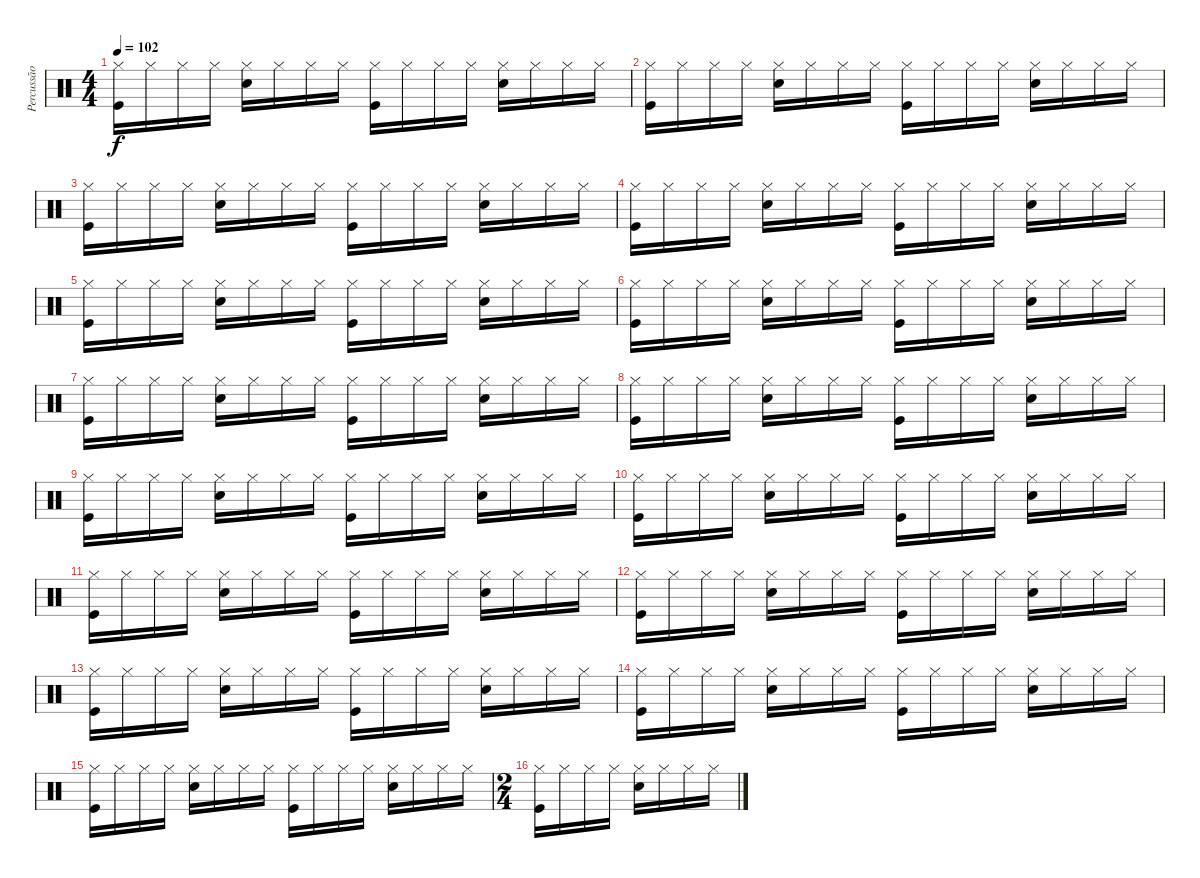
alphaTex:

\track ("Percussão" "Percussão") {instrument percussion}
\staff {score}
\articulation defaults
\ts (4 4)
\tempo 102
\clef neutral
\ks c
("Hi-Hat (closed)" "Kick (hit)").16{dy f} "Hi-Hat (closed)".16 "Hi-Hat (closed)".16 "Hi-Hat (closed)".16 ("Hi-Hat (closed)" "Snare (hit) 2").16 "Hi-Hat (closed)".16 "Hi-Hat (closed)".16 "Hi-Hat (closed)".16 ("Hi-Hat (closed)" "Kick (hit)").16 "Hi-Hat (closed)".16 "Hi-Hat (closed)".16 "Hi-Hat (closed)".16 ("Hi-Hat (closed)" "Snare (hit) 2").16 "Hi-Hat (closed)".16 "Hi-Hat (closed)".16 "Hi-Hat (closed)".16 |
("Hi-Hat (closed)" "Kick (hit)").16 "Hi-Hat (closed)".16 "Hi-Hat (closed)".16 "Hi-Hat (closed)".16 ("Hi-Hat (closed)" "Snare (hit) 2").16 "Hi-Hat (closed)".16 "Hi-Hat (closed)".16 "Hi-Hat (closed)".16 ("Hi-Hat (closed)" "Kick (hit)").16 "Hi-Hat (closed)".16 "Hi-Hat (closed)".16 "Hi-Hat (closed)".16 ("Hi-Hat (closed)" "Snare (hit) 2").16 "Hi-Hat (closed)".16 "Hi-Hat (closed)".16 "Hi-Hat (closed)".16 |
("Hi-Hat (closed)" "Kick (hit)").16 "Hi-Hat (closed)".16 "Hi-Hat (closed)".16 "Hi-Hat (closed)".16 ("Hi-Hat (closed)" "Snare (hit) 2").16 "Hi-Hat (closed)".16 "Hi-Hat (closed)".16 "Hi-Hat (closed)".16 ("Hi-Hat (closed)" "Kick (hit)").16 "Hi-Hat (closed)".16 "Hi-Hat (closed)".16 "Hi-Hat (closed)".16 ("Hi-Hat (closed)" "Snare (hit) 2").16 "Hi-Hat (closed)".16 "Hi-Hat (closed)".16 "Hi-Hat (closed)".16 |
("Hi-Hat (closed)" "Kick (hit)").16 "Hi-Hat (closed)".16 "Hi-Hat (closed)".16 "Hi-Hat (closed)".16 ("Hi-Hat (closed)" "Snare (hit) 2").16 "Hi-Hat (closed)".16 "Hi-Hat (closed)".16 "Hi-Hat (closed)".16 ("Hi-Hat (closed)" "Kick (hit)").16 "Hi-Hat (closed)".16 "Hi-Hat (closed)".16 "Hi-Hat (closed)".16 ("Hi-Hat (closed)" "Snare (hit) 2").16 "Hi-Hat (closed)".16 "Hi-Hat (closed)".16 "Hi-Hat (closed)".16 |
("Hi-Hat (closed)" "Kick (hit)").16 "Hi-Hat (closed)".16 "Hi-Hat (closed)".16 "Hi-Hat (closed)".16 ("Hi-Hat (closed)" "Snare (hit) 2").16 "Hi-Hat (closed)".16 "Hi-Hat (closed)".16 "Hi-Hat (closed)".16 ("Hi-Hat (closed)" "Kick (hit)").16 "Hi-Hat (closed)".16 "Hi-Hat (closed)".16 "Hi-Hat (closed)".16 ("Hi-Hat (closed)" "Snare (hit) 2").16 "Hi-Hat (closed)".16 "Hi-Hat (closed)".16 "Hi-Hat (closed)".16 |
("Hi-Hat (closed)" "Kick (hit)").16 "Hi-Hat (closed)".16 "Hi-Hat (closed)".16 "Hi-Hat (closed)".16 ("Hi-Hat (closed)" "Snare (hit) 2").16 "Hi-Hat (closed)".16 "Hi-Hat (closed)".16 "Hi-Hat (closed)".16 ("Hi-Hat (closed)" "Kick (hit)").16 "Hi-Hat (closed)".16 "Hi-Hat (closed)".16 "Hi-Hat (closed)".16 ("Hi-Hat (closed)" "Snare (hit) 2").16 "Hi-Hat (closed)".16 "Hi-Hat (closed)".16 "Hi-Hat (closed)".16 |
("Hi-Hat (closed)" "Kick (hit)").16 "Hi-Hat (closed)".16 "Hi-Hat (closed)".16 "Hi-Hat (closed)".16 ("Hi-Hat (closed)" "Snare (hit) 2").16 "Hi-Hat (closed)".16 "Hi-Hat (closed)".16 "Hi-Hat (closed)".16 ("Hi-Hat (closed)" "Kick (hit)").16 "Hi-Hat (closed)".16 "Hi-Hat (closed)".16 "Hi-Hat (closed)".16 ("Hi-Hat (closed)" "Snare (hit) 2").16 "Hi-Hat (closed)".16 "Hi-Hat (closed)".16 "Hi-Hat (closed)".16 |
("Hi-Hat (closed)" "Kick (hit)").16 "Hi-Hat (closed)".16 "Hi-Hat (closed)".16 "Hi-Hat (closed)".16 ("Hi-Hat (closed)" "Snare (hit) 2").16 "Hi-Hat (closed)".16 "Hi-Hat (closed)".16 "Hi-Hat (closed)".16 ("Hi-Hat (closed)" "Kick (hit)").16 "Hi-Hat (closed)".16 "Hi-Hat (closed)".16 "Hi-Hat (closed)".16 ("Hi-Hat (closed)" "Snare (hit) 2").16 "Hi-Hat (closed)".16 "Hi-Hat (closed)".16 "Hi-Hat (closed)".16 |
("Hi-Hat (closed)" "Kick (hit)").16 "Hi-Hat (closed)".16 "Hi-Hat (closed)".16 "Hi-Hat (closed)".16 ("Hi-Hat (closed)" "Snare (hit) 2").16 "Hi-Hat (closed)".16 "Hi-Hat (closed)".16 "Hi-Hat (closed)".16 ("Hi-Hat (closed)" "Kick (hit)").16 "Hi-Hat (closed)".16 "Hi-Hat (closed)".16 "Hi-Hat (closed)".16 ("Hi-Hat (closed)" "Snare (hit) 2").16 "Hi-Hat (closed)".16 "Hi-Hat (closed)".16 "Hi-Hat (closed)".16 |
("Hi-Hat (closed)" "Kick (hit)").16 "Hi-Hat (closed)".16 "Hi-Hat (closed)".16 "Hi-Hat (closed)".16 ("Hi-Hat (closed)" "Snare (hit) 2").16 "Hi-Hat (closed)".16 "Hi-Hat (closed)".16 "Hi-Hat (closed)".16 ("Hi-Hat (closed)" "Kick (hit)").16 "Hi-Hat (closed)".16 "Hi-Hat (closed)".16 "Hi-Hat (closed)".16 ("Hi-Hat (closed)" "Snare (hit) 2").16 "Hi-Hat (closed)".16 "Hi-Hat (closed)".16 "Hi-Hat (closed)".16 |
("Hi-Hat (closed)" "Kick (hit)").16 "Hi-Hat (closed)".16 "Hi-Hat (closed)".16 "Hi-Hat (closed)".16 ("Hi-Hat (closed)" "Snare (hit) 2").16 "Hi-Hat (closed)".16 "Hi-Hat (closed)".16 "Hi-Hat (closed)".16 ("Hi-Hat (closed)" "Kick (hit)").16 "Hi-Hat (closed)".16 "Hi-Hat (closed)".16 "Hi-Hat (closed)".16 ("Hi-Hat (closed)" "Snare (hit) 2").16 "Hi-Hat (closed)".16 "Hi-Hat (closed)".16 "Hi-Hat (closed)".16 |
("Hi-Hat (closed)" "Kick (hit)").16 "Hi-Hat (closed)".16 "Hi-Hat (closed)".16 "Hi-Hat (closed)".16 ("Hi-Hat (closed)" "Snare (hit) 2").16 "Hi-Hat (closed)".16 "Hi-Hat (closed)".16 "Hi-Hat (closed)".16 ("Hi-Hat (closed)" "Kick (hit)").16 "Hi-Hat (closed)".16 "Hi-Hat (closed)".16 "Hi-Hat (closed)".16 ("Hi-Hat (closed)" "Snare (hit) 2").16 "Hi-Hat (closed)".16 "Hi-Hat (closed)".16 "Hi-Hat (closed)".16 |
("Hi-Hat (closed)" "Kick (hit)").16 "Hi-Hat (closed)".16 "Hi-Hat (closed)".16 "Hi-Hat (closed)".16 ("Hi-Hat (closed)" "Snare (hit) 2").16 "Hi-Hat (closed)".16 "Hi-Hat (closed)".16 "Hi-Hat (closed)".16 ("Hi-Hat (closed)" "Kick (hit)").16 "Hi-Hat (closed)".16 "Hi-Hat (closed)".16 "Hi-Hat (closed)".16 ("Hi-Hat (closed)" "Snare (hit) 2").16 "Hi-Hat (closed)".16 "Hi-Hat (closed)".16 "Hi-Hat (closed)".16 |
("Hi-Hat (closed)" "Kick (hit)").16 "Hi-Hat (closed)".16 "Hi-Hat (closed)".16 "Hi-Hat (closed)".16 ("Hi-Hat (closed)" "Snare (hit) 2").16 "Hi-Hat (closed)".16 "Hi-Hat (closed)".16 "Hi-Hat (closed)".16 ("Hi-Hat (closed)" "Kick (hit)").16 "Hi-Hat (closed)".16 "Hi-Hat (closed)".16 "Hi-Hat (closed)".16 ("Hi-Hat (closed)" "Snare (hit) 2").16 "Hi-Hat (closed)".16 "Hi-Hat (closed)".16 "Hi-Hat (closed)".16 |
("Hi-Hat (closed)" "Kick (hit)").16 "Hi-Hat (closed)".16 "Hi-Hat (closed)".16 "Hi-Hat (closed)".16 ("Hi-Hat (closed)" "Snare (hit) 2").16 "Hi-Hat (closed)".16 "Hi-Hat (closed)".16 "Hi-Hat (closed)".16 ("Hi-Hat (closed)" "Kick (hit)").16 "Hi-Hat (closed)".16 "Hi-Hat (closed)".16 "Hi-Hat (closed)".16 ("Hi-Hat (closed)" "Snare (hit) 2").16 "Hi-Hat (closed)".16 "Hi-Hat (closed)".16 "Hi-Hat (closed)".16 |
\ts (2 4)
("Hi-Hat (closed)" "Kick (hit)").16 "Hi-Hat (closed)".16 "Hi-Hat (closed)".16 "Hi-Hat (closed)".16 ("Hi-Hat (closed)" "Snare (hit) 2").16 "Hi-Hat (closed)".16 "Hi-Hat (closed)".16 "Hi-Hat (closed)".16
